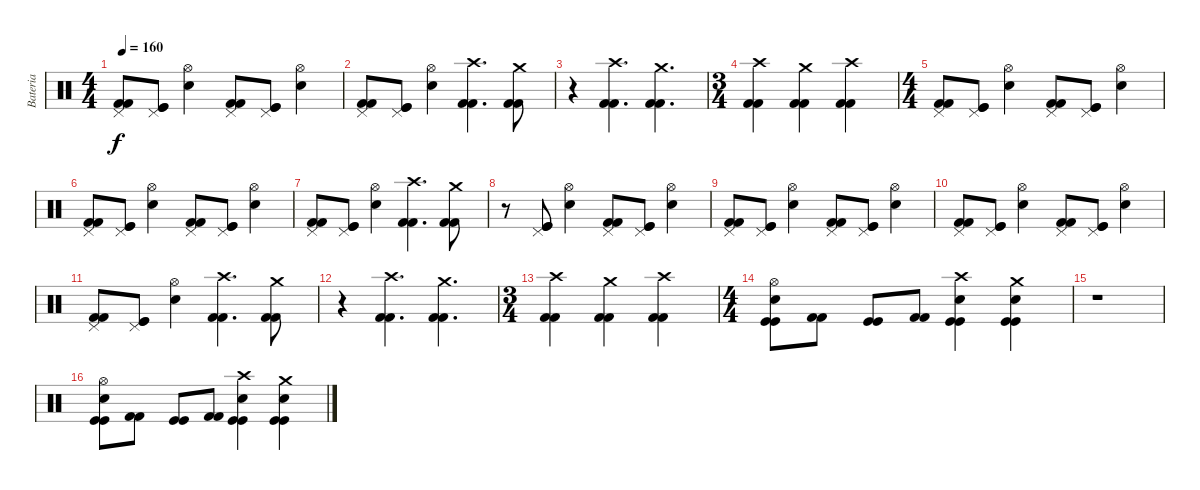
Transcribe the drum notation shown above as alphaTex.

\track ("Bateria" "Bateria") {instrument percussion}
\staff {score}
\articulation defaults
\ts (4 4)
\tempo 160
\clef neutral
\ks c
("Kick (hit) 2" "Kick (hit) 2" "Pedal Hi-Hat (hit)").8{dy f} ("Kick (hit)" "Kick (hit)" "Pedal Hi-Hat (hit)").8 ("Snare (hit) 2" "Hi-Hat (open)").4 ("Kick (hit) 2" "Kick (hit) 2" "Pedal Hi-Hat (hit)").8 ("Kick (hit)" "Kick (hit)" "Pedal Hi-Hat (hit)").8 ("Snare (hit) 2" "Hi-Hat (open)").4 |
("Kick (hit) 2" "Kick (hit) 2" "Pedal Hi-Hat (hit)").8 ("Kick (hit)" "Kick (hit)" "Pedal Hi-Hat (hit)").8 ("Snare (hit) 2" "Hi-Hat (open)").4 ("Kick (hit) 2" "Kick (hit) 2" "Crash high (hit)").4{d} ("Kick (hit) 2" "Kick (hit) 2" "Crash medium (hit)").8 |
r.4 ("Kick (hit) 2" "Kick (hit) 2" "Crash high (hit)").4{d} ("Kick (hit) 2" "Kick (hit) 2" "Crash medium (hit)").4{d} |
\ts (3 4)
("Kick (hit) 2" "Kick (hit) 2" "Crash high (hit)").4 ("Kick (hit) 2" "Kick (hit) 2" "Crash medium (hit)").4 ("Kick (hit) 2" "Kick (hit) 2" "Crash high (hit)").4 |
\ts (4 4)
("Kick (hit) 2" "Kick (hit) 2" "Pedal Hi-Hat (hit)").8 ("Kick (hit)" "Kick (hit)" "Pedal Hi-Hat (hit)").8 ("Snare (hit) 2" "Hi-Hat (open)").4 ("Kick (hit) 2" "Kick (hit) 2" "Pedal Hi-Hat (hit)").8 ("Kick (hit)" "Kick (hit)" "Pedal Hi-Hat (hit)").8 ("Snare (hit) 2" "Hi-Hat (open)").4 |
("Kick (hit) 2" "Kick (hit) 2" "Pedal Hi-Hat (hit)").8 ("Kick (hit)" "Kick (hit)" "Pedal Hi-Hat (hit)").8 ("Snare (hit) 2" "Hi-Hat (open)").4 ("Kick (hit) 2" "Kick (hit) 2" "Pedal Hi-Hat (hit)").8 ("Kick (hit)" "Kick (hit)" "Pedal Hi-Hat (hit)").8 ("Snare (hit) 2" "Hi-Hat (open)").4 |
("Kick (hit) 2" "Kick (hit) 2" "Pedal Hi-Hat (hit)").8 ("Kick (hit)" "Kick (hit)" "Pedal Hi-Hat (hit)").8 ("Snare (hit) 2" "Hi-Hat (open)").4 ("Kick (hit) 2" "Kick (hit) 2" "Crash high (hit)").4{d} ("Kick (hit) 2" "Kick (hit) 2" "Crash medium (hit)").8 |
r.8 ("Kick (hit)" "Kick (hit)" "Pedal Hi-Hat (hit)").8 ("Snare (hit) 2" "Hi-Hat (open)").4 ("Kick (hit) 2" "Kick (hit) 2" "Pedal Hi-Hat (hit)").8 ("Kick (hit)" "Kick (hit)" "Pedal Hi-Hat (hit)").8 ("Snare (hit) 2" "Hi-Hat (open)").4 |
("Kick (hit) 2" "Kick (hit) 2" "Pedal Hi-Hat (hit)").8 ("Kick (hit)" "Kick (hit)" "Pedal Hi-Hat (hit)").8 ("Snare (hit) 2" "Hi-Hat (open)").4 ("Kick (hit) 2" "Kick (hit) 2" "Pedal Hi-Hat (hit)").8 ("Kick (hit)" "Kick (hit)" "Pedal Hi-Hat (hit)").8 ("Snare (hit) 2" "Hi-Hat (open)").4 |
("Kick (hit) 2" "Kick (hit) 2" "Pedal Hi-Hat (hit)").8 ("Kick (hit)" "Kick (hit)" "Pedal Hi-Hat (hit)").8 ("Snare (hit) 2" "Hi-Hat (open)").4 ("Kick (hit) 2" "Kick (hit) 2" "Pedal Hi-Hat (hit)").8 ("Kick (hit)" "Kick (hit)" "Pedal Hi-Hat (hit)").8 ("Snare (hit) 2" "Hi-Hat (open)").4 |
("Kick (hit) 2" "Kick (hit) 2" "Pedal Hi-Hat (hit)").8 ("Kick (hit)" "Kick (hit)" "Pedal Hi-Hat (hit)").8 ("Snare (hit) 2" "Hi-Hat (open)").4 ("Kick (hit) 2" "Kick (hit) 2" "Crash high (hit)").4{d} ("Kick (hit) 2" "Kick (hit) 2" "Crash medium (hit)").8 |
r.4 ("Kick (hit) 2" "Kick (hit) 2" "Crash high (hit)").4{d} ("Kick (hit) 2" "Kick (hit) 2" "Crash medium (hit)").4{d} |
\ts (3 4)
("Kick (hit) 2" "Kick (hit) 2" "Crash high (hit)").4 ("Kick (hit) 2" "Kick (hit) 2" "Crash medium (hit)").4 ("Kick (hit) 2" "Kick (hit) 2" "Crash high (hit)").4 |
\ts (4 4)
("Kick (hit)" "Kick (hit)" "Snare (hit) 2" "Hi-Hat (open)").8 ("Kick (hit) 2" "Kick (hit) 2").8 ("Kick (hit)" "Kick (hit)").8 ("Kick (hit) 2" "Kick (hit) 2").8 ("Kick (hit)" "Kick (hit)" "Snare (hit) 2" "Crash high (hit)").4 ("Kick (hit)" "Kick (hit)" "Snare (hit) 2" "Crash medium (hit)").4 |
r.1 |
("Kick (hit)" "Kick (hit)" "Snare (hit) 2" "Hi-Hat (open)").8 ("Kick (hit) 2" "Kick (hit) 2").8 ("Kick (hit)" "Kick (hit)").8 ("Kick (hit) 2" "Kick (hit) 2").8 ("Kick (hit)" "Kick (hit)" "Snare (hit) 2" "Crash high (hit)").4 ("Kick (hit)" "Kick (hit)" "Snare (hit) 2" "Crash medium (hit)").4
